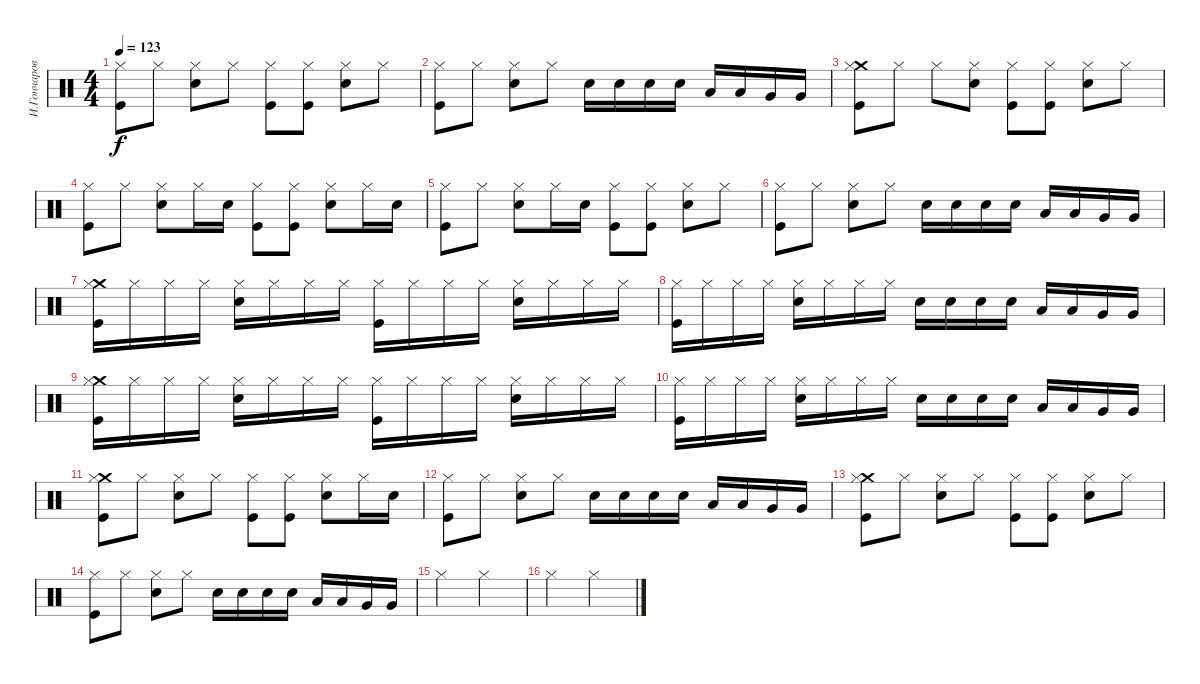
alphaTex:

\track ("И.Гончаров" "И.Гончаров") {instrument percussion}
\staff {score}
\articulation defaults
\ts (4 4)
\tempo 123
\clef neutral
\ks c
("Hi-Hat (closed)" "Kick (hit)").8{dy f} "Hi-Hat (closed)".8 ("Hi-Hat (closed)" "Snare (hit) 2").8 "Hi-Hat (closed)".8 ("Hi-Hat (closed)" "Kick (hit)").8 ("Hi-Hat (closed)" "Kick (hit)").8 ("Hi-Hat (closed)" "Snare (hit) 2").8 "Hi-Hat (closed)".8 |
("Hi-Hat (closed)" "Kick (hit)").8 "Hi-Hat (closed)".8 ("Hi-Hat (closed)" "Snare (hit) 2").8 "Hi-Hat (closed)".8 "Snare (hit) 2".16 "Snare (hit) 2".16 "Snare (hit) 2".16 "Snare (hit) 2".16 "Low Tom (hit)".16 "Low Tom (hit)".16 "Very Low Tom (hit)".16 "Very Low Tom (hit)".16 |
("Crash medium (hit)" "Hi-Hat (closed)" "Kick (hit)").8 "Hi-Hat (closed)".8 "Hi-Hat (closed)".8 ("Hi-Hat (closed)" "Snare (hit) 2").8 ("Hi-Hat (closed)" "Kick (hit)").8 ("Hi-Hat (closed)" "Kick (hit)").8 ("Hi-Hat (closed)" "Snare (hit) 2").8 "Hi-Hat (closed)".8 |
("Hi-Hat (closed)" "Kick (hit)").8 "Hi-Hat (closed)".8 ("Hi-Hat (closed)" "Snare (hit) 2").8 "Hi-Hat (closed)".16 "Snare (hit) 2".16 ("Hi-Hat (closed)" "Kick (hit)").8 ("Hi-Hat (closed)" "Kick (hit)").8 ("Hi-Hat (closed)" "Snare (hit) 2").8 "Hi-Hat (closed)".16 "Snare (hit) 2".16 |
("Hi-Hat (closed)" "Kick (hit)").8 "Hi-Hat (closed)".8 ("Hi-Hat (closed)" "Snare (hit) 2").8 "Hi-Hat (closed)".16 "Snare (hit) 2".16 ("Hi-Hat (closed)" "Kick (hit)").8 ("Hi-Hat (closed)" "Kick (hit)").8 ("Hi-Hat (closed)" "Snare (hit) 2").8 "Hi-Hat (closed)".8 |
("Hi-Hat (closed)" "Kick (hit)").8 "Hi-Hat (closed)".8 ("Hi-Hat (closed)" "Snare (hit) 2").8 "Hi-Hat (closed)".8 "Snare (hit) 2".16 "Snare (hit) 2".16 "Snare (hit) 2".16 "Snare (hit) 2".16 "Low Tom (hit)".16 "Low Tom (hit)".16 "Very Low Tom (hit)".16 "Very Low Tom (hit)".16 |
("Crash medium (hit)" "Hi-Hat (closed)" "Kick (hit)").16 "Hi-Hat (closed)".16 "Hi-Hat (closed)".16 "Hi-Hat (closed)".16 ("Hi-Hat (closed)" "Snare (hit) 2").16 "Hi-Hat (closed)".16 "Hi-Hat (closed)".16 "Hi-Hat (closed)".16 ("Hi-Hat (closed)" "Kick (hit)").16 "Hi-Hat (closed)".16 "Hi-Hat (closed)".16 "Hi-Hat (closed)".16 ("Hi-Hat (closed)" "Snare (hit) 2").16 "Hi-Hat (closed)".16 "Hi-Hat (closed)".16 "Hi-Hat (closed)".16 |
("Hi-Hat (closed)" "Kick (hit)").16 "Hi-Hat (closed)".16 "Hi-Hat (closed)".16 "Hi-Hat (closed)".16 ("Hi-Hat (closed)" "Snare (hit) 2").16 "Hi-Hat (closed)".16 "Hi-Hat (closed)".16 "Hi-Hat (closed)".16 "Snare (hit) 2".16 "Snare (hit) 2".16 "Snare (hit) 2".16 "Snare (hit) 2".16 "Low Tom (hit)".16 "Low Tom (hit)".16 "Very Low Tom (hit)".16 "Very Low Tom (hit)".16 |
("Crash medium (hit)" "Hi-Hat (closed)" "Kick (hit)").16 "Hi-Hat (closed)".16 "Hi-Hat (closed)".16 "Hi-Hat (closed)".16 ("Hi-Hat (closed)" "Snare (hit) 2").16 "Hi-Hat (closed)".16 "Hi-Hat (closed)".16 "Hi-Hat (closed)".16 ("Hi-Hat (closed)" "Kick (hit)").16 "Hi-Hat (closed)".16 "Hi-Hat (closed)".16 "Hi-Hat (closed)".16 ("Hi-Hat (closed)" "Snare (hit) 2").16 "Hi-Hat (closed)".16 "Hi-Hat (closed)".16 "Hi-Hat (closed)".16 |
("Hi-Hat (closed)" "Kick (hit)").16 "Hi-Hat (closed)".16 "Hi-Hat (closed)".16 "Hi-Hat (closed)".16 ("Hi-Hat (closed)" "Snare (hit) 2").16 "Hi-Hat (closed)".16 "Hi-Hat (closed)".16 "Hi-Hat (closed)".16 "Snare (hit) 2".16 "Snare (hit) 2".16 "Snare (hit) 2".16 "Snare (hit) 2".16 "Low Tom (hit)".16 "Low Tom (hit)".16 "Very Low Tom (hit)".16 "Very Low Tom (hit)".16 |
("Crash medium (hit)" "Hi-Hat (closed)" "Kick (hit)").8 "Hi-Hat (closed)".8 ("Hi-Hat (closed)" "Snare (hit) 2").8 "Hi-Hat (closed)".8 ("Hi-Hat (closed)" "Kick (hit)").8 ("Hi-Hat (closed)" "Kick (hit)").8 ("Hi-Hat (closed)" "Snare (hit) 2").8 "Hi-Hat (closed)".16 "Snare (hit) 2".16 |
("Hi-Hat (closed)" "Kick (hit)").8 "Hi-Hat (closed)".8 ("Hi-Hat (closed)" "Snare (hit) 2").8 "Hi-Hat (closed)".8 "Snare (hit) 2".16 "Snare (hit) 2".16 "Snare (hit) 2".16 "Snare (hit) 2".16 "Low Tom (hit)".16 "Low Tom (hit)".16 "Very Low Tom (hit)".16 "Very Low Tom (hit)".16 |
("Crash medium (hit)" "Hi-Hat (closed)" "Kick (hit)").8 "Hi-Hat (closed)".8 ("Hi-Hat (closed)" "Snare (hit) 2").8 "Hi-Hat (closed)".8 ("Hi-Hat (closed)" "Kick (hit)").8 ("Hi-Hat (closed)" "Kick (hit)").8 ("Hi-Hat (closed)" "Snare (hit) 2").8 "Hi-Hat (closed)".8 |
("Hi-Hat (closed)" "Kick (hit)").8 "Hi-Hat (closed)".8 ("Hi-Hat (closed)" "Snare (hit) 2").8 "Hi-Hat (closed)".8 "Snare (hit) 2".16 "Snare (hit) 2".16 "Snare (hit) 2".16 "Snare (hit) 2".16 "Low Tom (hit)".16 "Low Tom (hit)".16 "Very Low Tom (hit)".16 "Very Low Tom (hit)".16 |
"Hi-Hat (closed)".2 "Hi-Hat (closed)".2 |
"Hi-Hat (closed)".2 "Hi-Hat (closed)".2
